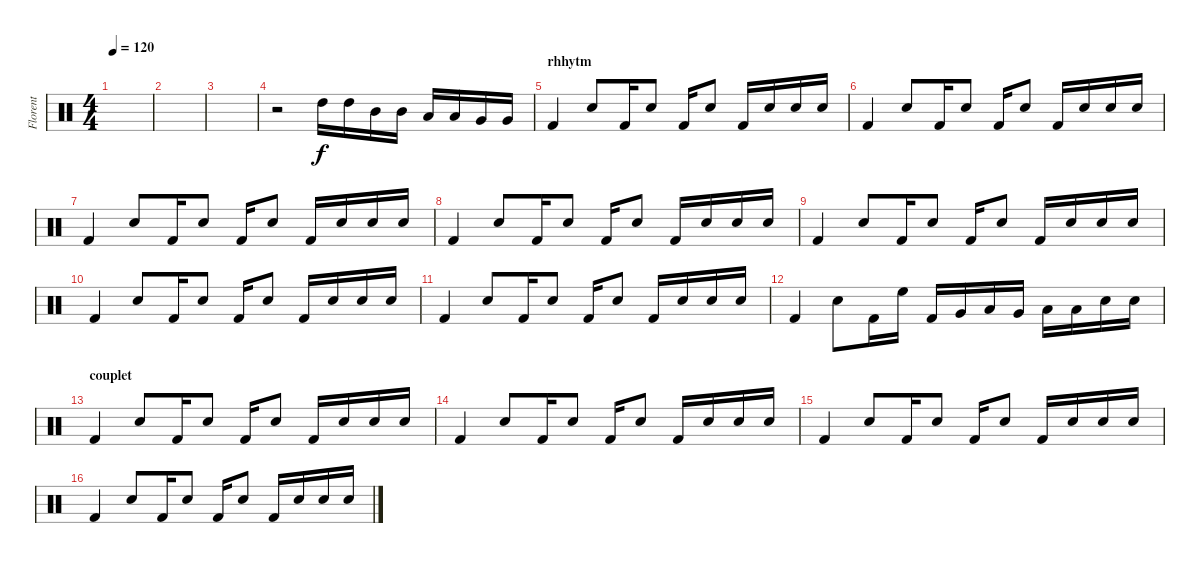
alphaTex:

\track ("Florent" "Florent") {instrument percussion}
\staff {score}
\articulation defaults
\ts (4 4)
\tempo 120
\clef neutral
\ks c
|
|
|
r.2 "High Tom (hit)".16 "High Tom (hit)".16 "Mid Tom (hit)".16 "Mid Tom (hit)".16 "Low Tom (hit)".16 "Low Tom (hit)".16 "Very Low Tom (hit)".16 "Very Low Tom (hit)".16 |
\section ("" "rhhytm")
"Kick (hit) 2".4 "Electric Snare (hit)".8 "Kick (hit) 2".16 "Electric Snare (hit)".8 "Kick (hit) 2".16 "Electric Snare (hit)".8 "Kick (hit) 2".16 "Electric Snare (hit)".16 "Electric Snare (hit)".16 "Electric Snare (hit)".16 |
"Kick (hit) 2".4 "Electric Snare (hit)".8 "Kick (hit) 2".16 "Electric Snare (hit)".8 "Kick (hit) 2".16 "Electric Snare (hit)".8 "Kick (hit) 2".16 "Electric Snare (hit)".16 "Electric Snare (hit)".16 "Electric Snare (hit)".16 |
"Kick (hit) 2".4 "Electric Snare (hit)".8 "Kick (hit) 2".16 "Electric Snare (hit)".8 "Kick (hit) 2".16 "Electric Snare (hit)".8 "Kick (hit) 2".16 "Electric Snare (hit)".16 "Electric Snare (hit)".16 "Electric Snare (hit)".16 |
"Kick (hit) 2".4 "Electric Snare (hit)".8 "Kick (hit) 2".16 "Electric Snare (hit)".8 "Kick (hit) 2".16 "Electric Snare (hit)".8 "Kick (hit) 2".16 "Electric Snare (hit)".16 "Electric Snare (hit)".16 "Electric Snare (hit)".16 |
"Kick (hit) 2".4 "Electric Snare (hit)".8 "Kick (hit) 2".16 "Electric Snare (hit)".8 "Kick (hit) 2".16 "Electric Snare (hit)".8 "Kick (hit) 2".16 "Electric Snare (hit)".16 "Electric Snare (hit)".16 "Electric Snare (hit)".16 |
"Kick (hit) 2".4 "Electric Snare (hit)".8 "Kick (hit) 2".16 "Electric Snare (hit)".8 "Kick (hit) 2".16 "Electric Snare (hit)".8 "Kick (hit) 2".16 "Electric Snare (hit)".16 "Electric Snare (hit)".16 "Electric Snare (hit)".16 |
"Kick (hit) 2".4 "Electric Snare (hit)".8 "Kick (hit) 2".16 "Electric Snare (hit)".8 "Kick (hit) 2".16 "Electric Snare (hit)".8 "Kick (hit) 2".16 "Electric Snare (hit)".16 "Electric Snare (hit)".16 "Electric Snare (hit)".16 |
"Kick (hit) 2".4 "Electric Snare (hit)".8 "Kick (hit) 2".16 "High Floor Tom (hit)".16 "Kick (hit) 2".16 "Very Low Tom (hit)".16 "Low Tom (hit)".16 "Very Low Tom (hit)".16 "Low Tom (hit)".16 "Low Tom (hit)".16 "Electric Snare (hit)".16 "Electric Snare (hit)".16 |
\section ("" "couplet")
"Kick (hit) 2".4 "Electric Snare (hit)".8 "Kick (hit) 2".16 "Electric Snare (hit)".8 "Kick (hit) 2".16 "Electric Snare (hit)".8 "Kick (hit) 2".16 "Electric Snare (hit)".16 "Electric Snare (hit)".16 "Electric Snare (hit)".16 |
"Kick (hit) 2".4 "Electric Snare (hit)".8 "Kick (hit) 2".16 "Electric Snare (hit)".8 "Kick (hit) 2".16 "Electric Snare (hit)".8 "Kick (hit) 2".16 "Electric Snare (hit)".16 "Electric Snare (hit)".16 "Electric Snare (hit)".16 |
"Kick (hit) 2".4 "Electric Snare (hit)".8 "Kick (hit) 2".16 "Electric Snare (hit)".8 "Kick (hit) 2".16 "Electric Snare (hit)".8 "Kick (hit) 2".16 "Electric Snare (hit)".16 "Electric Snare (hit)".16 "Electric Snare (hit)".16 |
"Kick (hit) 2".4 "Electric Snare (hit)".8 "Kick (hit) 2".16 "Electric Snare (hit)".8 "Kick (hit) 2".16 "Electric Snare (hit)".8 "Kick (hit) 2".16 "Electric Snare (hit)".16 "Electric Snare (hit)".16 "Electric Snare (hit)".16
